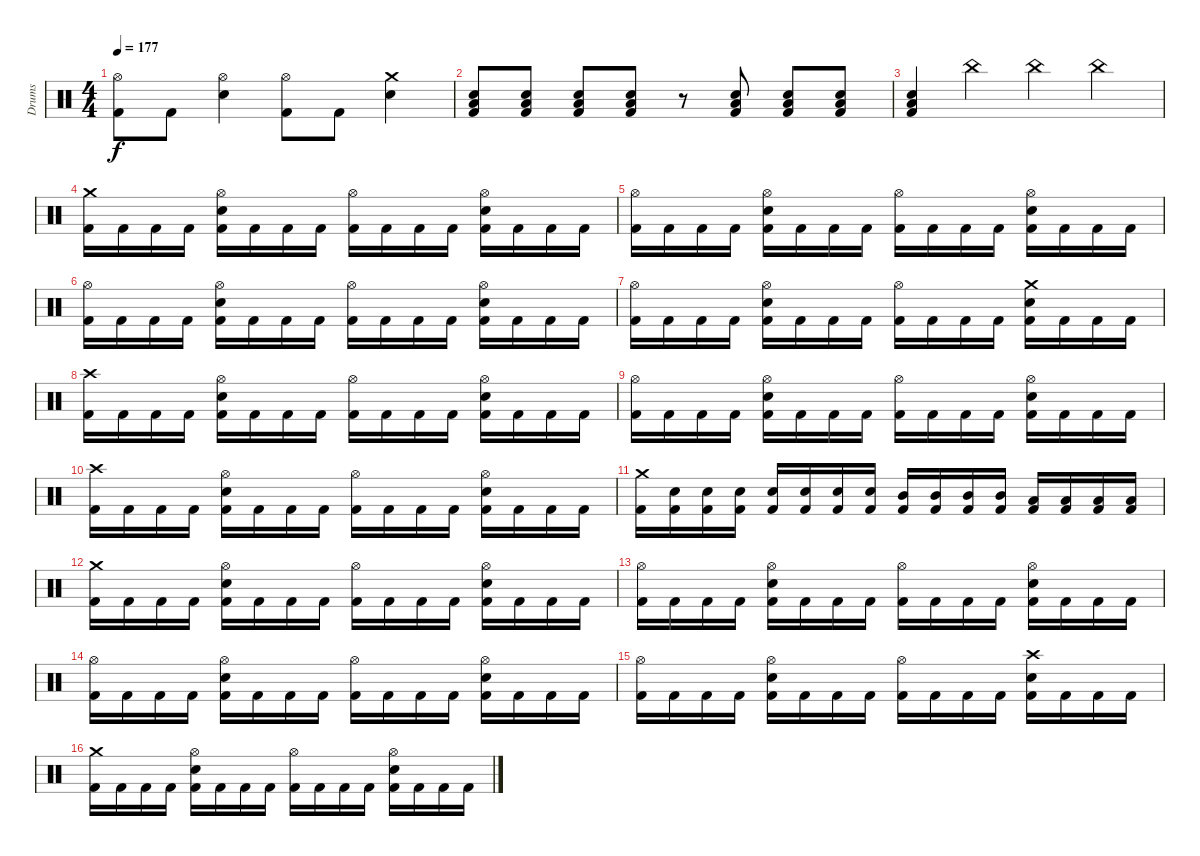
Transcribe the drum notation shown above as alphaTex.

\track ("Drums" "Drums") {instrument percussion}
\staff {score}
\articulation defaults
\ts (4 4)
\tempo 177
\clef neutral
\ks c
("Hi-Hat (open)" "Kick (hit) 2").8{dy f} "Kick (hit) 2".8 ("Hi-Hat (open)" "Snare (hit) 2").4 ("Hi-Hat (open)" "Kick (hit) 2").8 "Kick (hit) 2".8 ("Crash medium (hit)" "Snare (hit) 2").4 |
("Low Floor Tom (hit)" "Snare (hit) 2" "Kick (hit) 2").8 ("Low Floor Tom (hit)" "Snare (hit) 2" "Kick (hit) 2").8 ("Low Floor Tom (hit)" "Snare (hit) 2" "Kick (hit) 2").8 ("Low Floor Tom (hit)" "Snare (hit) 2" "Kick (hit) 2").8 r.8 ("Low Floor Tom (hit)" "Snare (hit) 2" "Kick (hit) 2").8 ("Low Floor Tom (hit)" "Snare (hit) 2" "Kick (hit) 2").8 ("Low Floor Tom (hit)" "Snare (hit) 2" "Kick (hit) 2").8 |
("Low Floor Tom (hit)" "Snare (hit) 2" "Kick (hit) 2").4 "China (hit)".4 "China (hit)".4 "China (hit)".4 |
("Crash medium (hit)" "Kick (hit) 2").16 "Kick (hit) 2".16 "Kick (hit) 2".16 "Kick (hit) 2".16 ("Hi-Hat (open)" "Snare (hit) 2" "Kick (hit) 2").16 "Kick (hit) 2".16 "Kick (hit) 2".16 "Kick (hit) 2".16 ("Hi-Hat (open)" "Kick (hit) 2").16 "Kick (hit) 2".16 "Kick (hit) 2".16 "Kick (hit) 2".16 ("Hi-Hat (open)" "Snare (hit) 2" "Kick (hit) 2").16 "Kick (hit) 2".16 "Kick (hit) 2".16 "Kick (hit) 2".16 |
("Hi-Hat (open)" "Kick (hit) 2").16 "Kick (hit) 2".16 "Kick (hit) 2".16 "Kick (hit) 2".16 ("Hi-Hat (open)" "Snare (hit) 2" "Kick (hit) 2").16 "Kick (hit) 2".16 "Kick (hit) 2".16 "Kick (hit) 2".16 ("Hi-Hat (open)" "Kick (hit) 2").16 "Kick (hit) 2".16 "Kick (hit) 2".16 "Kick (hit) 2".16 ("Hi-Hat (open)" "Snare (hit) 2" "Kick (hit) 2").16 "Kick (hit) 2".16 "Kick (hit) 2".16 "Kick (hit) 2".16 |
("Hi-Hat (open)" "Kick (hit) 2").16 "Kick (hit) 2".16 "Kick (hit) 2".16 "Kick (hit) 2".16 ("Hi-Hat (open)" "Snare (hit) 2" "Kick (hit) 2").16 "Kick (hit) 2".16 "Kick (hit) 2".16 "Kick (hit) 2".16 ("Hi-Hat (open)" "Kick (hit) 2").16 "Kick (hit) 2".16 "Kick (hit) 2".16 "Kick (hit) 2".16 ("Hi-Hat (open)" "Snare (hit) 2" "Kick (hit) 2").16 "Kick (hit) 2".16 "Kick (hit) 2".16 "Kick (hit) 2".16 |
("Hi-Hat (open)" "Kick (hit) 2").16 "Kick (hit) 2".16 "Kick (hit) 2".16 "Kick (hit) 2".16 ("Hi-Hat (open)" "Snare (hit) 2" "Kick (hit) 2").16 "Kick (hit) 2".16 "Kick (hit) 2".16 "Kick (hit) 2".16 ("Hi-Hat (open)" "Kick (hit) 2").16 "Kick (hit) 2".16 "Kick (hit) 2".16 "Kick (hit) 2".16 ("Crash medium (hit)" "Snare (hit) 2" "Kick (hit) 2").16 "Kick (hit) 2".16 "Kick (hit) 2".16 "Kick (hit) 2".16 |
("Crash high (hit)" "Kick (hit) 2").16 "Kick (hit) 2".16 "Kick (hit) 2".16 "Kick (hit) 2".16 ("Hi-Hat (open)" "Snare (hit) 2" "Kick (hit) 2").16 "Kick (hit) 2".16 "Kick (hit) 2".16 "Kick (hit) 2".16 ("Hi-Hat (open)" "Kick (hit) 2").16 "Kick (hit) 2".16 "Kick (hit) 2".16 "Kick (hit) 2".16 ("Hi-Hat (open)" "Snare (hit) 2" "Kick (hit) 2").16 "Kick (hit) 2".16 "Kick (hit) 2".16 "Kick (hit) 2".16 |
("Hi-Hat (open)" "Kick (hit) 2").16 "Kick (hit) 2".16 "Kick (hit) 2".16 "Kick (hit) 2".16 ("Hi-Hat (open)" "Snare (hit) 2" "Kick (hit) 2").16 "Kick (hit) 2".16 "Kick (hit) 2".16 "Kick (hit) 2".16 ("Hi-Hat (open)" "Kick (hit) 2").16 "Kick (hit) 2".16 "Kick (hit) 2".16 "Kick (hit) 2".16 ("Hi-Hat (open)" "Snare (hit) 2" "Kick (hit) 2").16 "Kick (hit) 2".16 "Kick (hit) 2".16 "Kick (hit) 2".16 |
("Crash high (hit)" "Kick (hit) 2").16 "Kick (hit) 2".16 "Kick (hit) 2".16 "Kick (hit) 2".16 ("Hi-Hat (open)" "Snare (hit) 2" "Kick (hit) 2").16 "Kick (hit) 2".16 "Kick (hit) 2".16 "Kick (hit) 2".16 ("Hi-Hat (open)" "Kick (hit) 2").16 "Kick (hit) 2".16 "Kick (hit) 2".16 "Kick (hit) 2".16 ("Hi-Hat (open)" "Snare (hit) 2" "Kick (hit) 2").16 "Kick (hit) 2".16 "Kick (hit) 2".16 "Kick (hit) 2".16 |
("Crash medium (hit)" "Kick (hit) 2").16 ("Snare (hit) 2" "Kick (hit) 2").16 ("Snare (hit) 2" "Kick (hit) 2").16 ("Snare (hit) 2" "Kick (hit) 2").16 ("Snare (hit) 2" "Kick (hit) 2").16 ("Snare (hit) 2" "Kick (hit) 2").16 ("Snare (hit) 2" "Kick (hit) 2").16 ("Snare (hit) 2" "Kick (hit) 2").16 ("Mid Tom (hit)" "Kick (hit) 2").16 ("Mid Tom (hit)" "Kick (hit) 2").16 ("Mid Tom (hit)" "Kick (hit) 2").16 ("Mid Tom (hit)" "Kick (hit) 2").16 ("Low Tom (hit)" "Kick (hit) 2").16 ("Low Tom (hit)" "Kick (hit) 2").16 ("Low Tom (hit)" "Kick (hit) 2").16 ("Low Tom (hit)" "Kick (hit) 2").16 |
("Crash medium (hit)" "Kick (hit) 2").16 "Kick (hit) 2".16 "Kick (hit) 2".16 "Kick (hit) 2".16 ("Hi-Hat (open)" "Snare (hit) 2" "Kick (hit) 2").16 "Kick (hit) 2".16 "Kick (hit) 2".16 "Kick (hit) 2".16 ("Hi-Hat (open)" "Kick (hit) 2").16 "Kick (hit) 2".16 "Kick (hit) 2".16 "Kick (hit) 2".16 ("Hi-Hat (open)" "Snare (hit) 2" "Kick (hit) 2").16 "Kick (hit) 2".16 "Kick (hit) 2".16 "Kick (hit) 2".16 |
("Hi-Hat (open)" "Kick (hit) 2").16 "Kick (hit) 2".16 "Kick (hit) 2".16 "Kick (hit) 2".16 ("Hi-Hat (open)" "Snare (hit) 2" "Kick (hit) 2").16 "Kick (hit) 2".16 "Kick (hit) 2".16 "Kick (hit) 2".16 ("Hi-Hat (open)" "Kick (hit) 2").16 "Kick (hit) 2".16 "Kick (hit) 2".16 "Kick (hit) 2".16 ("Hi-Hat (open)" "Snare (hit) 2" "Kick (hit) 2").16 "Kick (hit) 2".16 "Kick (hit) 2".16 "Kick (hit) 2".16 |
("Hi-Hat (open)" "Kick (hit) 2").16 "Kick (hit) 2".16 "Kick (hit) 2".16 "Kick (hit) 2".16 ("Hi-Hat (open)" "Snare (hit) 2" "Kick (hit) 2").16 "Kick (hit) 2".16 "Kick (hit) 2".16 "Kick (hit) 2".16 ("Hi-Hat (open)" "Kick (hit) 2").16 "Kick (hit) 2".16 "Kick (hit) 2".16 "Kick (hit) 2".16 ("Hi-Hat (open)" "Snare (hit) 2" "Kick (hit) 2").16 "Kick (hit) 2".16 "Kick (hit) 2".16 "Kick (hit) 2".16 |
("Hi-Hat (open)" "Kick (hit) 2").16 "Kick (hit) 2".16 "Kick (hit) 2".16 "Kick (hit) 2".16 ("Hi-Hat (open)" "Snare (hit) 2" "Kick (hit) 2").16 "Kick (hit) 2".16 "Kick (hit) 2".16 "Kick (hit) 2".16 ("Hi-Hat (open)" "Kick (hit) 2").16 "Kick (hit) 2".16 "Kick (hit) 2".16 "Kick (hit) 2".16 ("Crash high (hit)" "Snare (hit) 2" "Kick (hit) 2").16 "Kick (hit) 2".16 "Kick (hit) 2".16 "Kick (hit) 2".16 |
("Crash medium (hit)" "Kick (hit) 2").16 "Kick (hit) 2".16 "Kick (hit) 2".16 "Kick (hit) 2".16 ("Hi-Hat (open)" "Snare (hit) 2" "Kick (hit) 2").16 "Kick (hit) 2".16 "Kick (hit) 2".16 "Kick (hit) 2".16 ("Hi-Hat (open)" "Kick (hit) 2").16 "Kick (hit) 2".16 "Kick (hit) 2".16 "Kick (hit) 2".16 ("Hi-Hat (open)" "Snare (hit) 2" "Kick (hit) 2").16 "Kick (hit) 2".16 "Kick (hit) 2".16 "Kick (hit) 2".16
